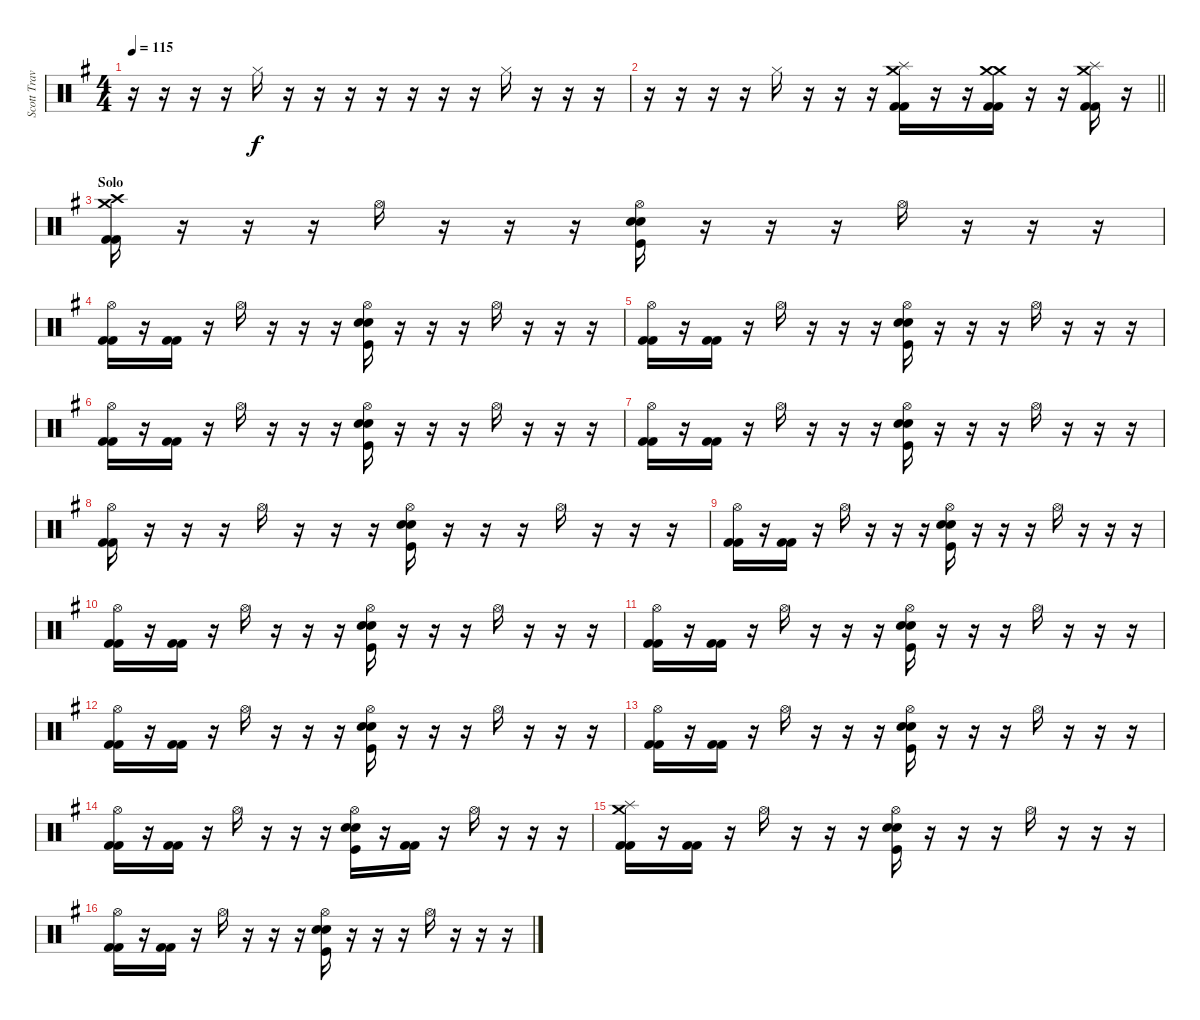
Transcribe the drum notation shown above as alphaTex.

\track ("Scott Travis" "Scott Trav") {instrument percussion}
\staff {score}
\articulation defaults
\ts (4 4)
\tempo 115
\clef neutral
\ks eminor
r.16{dy f} r.16 r.16 r.16 "Hi-Hat (closed)".16 r.16 r.16 r.16 r.16 r.16 r.16 r.16 "Hi-Hat (closed)".16 r.16 r.16 r.16 |
\barLineRight lightlight
r.16 r.16 r.16 r.16 "Hi-Hat (closed)".16 r.16 r.16 r.16 ("Splash (hit)" "Crash medium (hit)" "Kick (hit) 2" "Kick (hit) 2").16 r.16 r.16 ("Crash medium (hit)" "Crash medium (hit)" "Kick (hit) 2" "Kick (hit) 2").16 r.16 r.16 ("Crash medium (hit)" "Splash (hit)" "Kick (hit) 2" "Kick (hit) 2").16 r.16 |
\section ("" "Solo")
("Crash medium (hit)" "Crash high (hit)" "Kick (hit) 2" "Kick (hit) 2").16 r.16 r.16 r.16 "Hi-Hat (open)".16 r.16 r.16 r.16 ("Hi-Hat (open)" "Snare (hit) 2" "Snare (hit) 2" "Kick (hit)").16 r.16 r.16 r.16 "Hi-Hat (open)".16 r.16 r.16 r.16 |
("Hi-Hat (open)" "Kick (hit) 2" "Kick (hit) 2").16 r.16 ("Kick (hit) 2" "Kick (hit) 2").16 r.16 "Hi-Hat (open)".16 r.16 r.16 r.16 ("Hi-Hat (open)" "Snare (hit) 2" "Snare (hit) 2" "Kick (hit)").16 r.16 r.16 r.16 "Hi-Hat (open)".16 r.16 r.16 r.16 |
("Hi-Hat (open)" "Kick (hit) 2" "Kick (hit) 2").16 r.16 ("Kick (hit) 2" "Kick (hit) 2").16 r.16 "Hi-Hat (open)".16 r.16 r.16 r.16 ("Hi-Hat (open)" "Snare (hit) 2" "Snare (hit) 2" "Kick (hit)").16 r.16 r.16 r.16 "Hi-Hat (open)".16 r.16 r.16 r.16 |
("Hi-Hat (open)" "Kick (hit) 2" "Kick (hit) 2").16 r.16 ("Kick (hit) 2" "Kick (hit) 2").16 r.16 "Hi-Hat (open)".16 r.16 r.16 r.16 ("Hi-Hat (open)" "Snare (hit) 2" "Snare (hit) 2" "Kick (hit)").16 r.16 r.16 r.16 "Hi-Hat (open)".16 r.16 r.16 r.16 |
("Hi-Hat (open)" "Kick (hit) 2" "Kick (hit) 2").16 r.16 ("Kick (hit) 2" "Kick (hit) 2").16 r.16 "Hi-Hat (open)".16 r.16 r.16 r.16 ("Hi-Hat (open)" "Snare (hit) 2" "Snare (hit) 2" "Kick (hit)").16 r.16 r.16 r.16 "Hi-Hat (open)".16 r.16 r.16 r.16 |
("Hi-Hat (open)" "Kick (hit) 2" "Kick (hit) 2").16 r.16 r.16 r.16 "Hi-Hat (open)".16 r.16 r.16 r.16 ("Hi-Hat (open)" "Snare (hit) 2" "Snare (hit) 2" "Kick (hit)").16 r.16 r.16 r.16 "Hi-Hat (open)".16 r.16 r.16 r.16 |
("Hi-Hat (open)" "Kick (hit) 2" "Kick (hit) 2").16 r.16 ("Kick (hit) 2" "Kick (hit) 2").16 r.16 "Hi-Hat (open)".16 r.16 r.16 r.16 ("Hi-Hat (open)" "Snare (hit) 2" "Snare (hit) 2" "Kick (hit)").16 r.16 r.16 r.16 "Hi-Hat (open)".16 r.16 r.16 r.16 |
("Hi-Hat (open)" "Kick (hit) 2" "Kick (hit) 2").16 r.16 ("Kick (hit) 2" "Kick (hit) 2").16 r.16 "Hi-Hat (open)".16 r.16 r.16 r.16 ("Hi-Hat (open)" "Snare (hit) 2" "Snare (hit) 2" "Kick (hit)").16 r.16 r.16 r.16 "Hi-Hat (open)".16 r.16 r.16 r.16 |
("Hi-Hat (open)" "Kick (hit) 2" "Kick (hit) 2").16 r.16 ("Kick (hit) 2" "Kick (hit) 2").16 r.16 "Hi-Hat (open)".16 r.16 r.16 r.16 ("Hi-Hat (open)" "Snare (hit) 2" "Snare (hit) 2" "Kick (hit)").16 r.16 r.16 r.16 "Hi-Hat (open)".16 r.16 r.16 r.16 |
("Hi-Hat (open)" "Kick (hit) 2" "Kick (hit) 2").16 r.16 ("Kick (hit) 2" "Kick (hit) 2").16 r.16 "Hi-Hat (open)".16 r.16 r.16 r.16 ("Hi-Hat (open)" "Snare (hit) 2" "Snare (hit) 2" "Kick (hit)").16 r.16 r.16 r.16 "Hi-Hat (open)".16 r.16 r.16 r.16 |
("Hi-Hat (open)" "Kick (hit) 2" "Kick (hit) 2").16 r.16 ("Kick (hit) 2" "Kick (hit) 2").16 r.16 "Hi-Hat (open)".16 r.16 r.16 r.16 ("Hi-Hat (open)" "Snare (hit) 2" "Snare (hit) 2" "Kick (hit)").16 r.16 r.16 r.16 "Hi-Hat (open)".16 r.16 r.16 r.16 |
("Hi-Hat (open)" "Kick (hit) 2" "Kick (hit) 2").16 r.16 ("Kick (hit) 2" "Kick (hit) 2").16 r.16 "Hi-Hat (open)".16 r.16 r.16 r.16 ("Hi-Hat (open)" "Snare (hit) 2" "Snare (hit) 2" "Kick (hit)").16 r.16 ("Kick (hit) 2" "Kick (hit) 2").16 r.16 "Hi-Hat (open)".16 r.16 r.16 r.16 |
("Crash medium (hit)" "Splash (hit)" "Kick (hit) 2" "Kick (hit) 2").16 r.16 ("Kick (hit) 2" "Kick (hit) 2").16 r.16 "Hi-Hat (open)".16 r.16 r.16 r.16 ("Hi-Hat (open)" "Snare (hit) 2" "Snare (hit) 2" "Kick (hit)").16 r.16 r.16 r.16 "Hi-Hat (open)".16 r.16 r.16 r.16 |
("Hi-Hat (open)" "Kick (hit) 2" "Kick (hit) 2").16 r.16 ("Kick (hit) 2" "Kick (hit) 2").16 r.16 "Hi-Hat (open)".16 r.16 r.16 r.16 ("Hi-Hat (open)" "Snare (hit) 2" "Snare (hit) 2" "Kick (hit)").16 r.16 r.16 r.16 "Hi-Hat (open)".16 r.16 r.16 r.16
